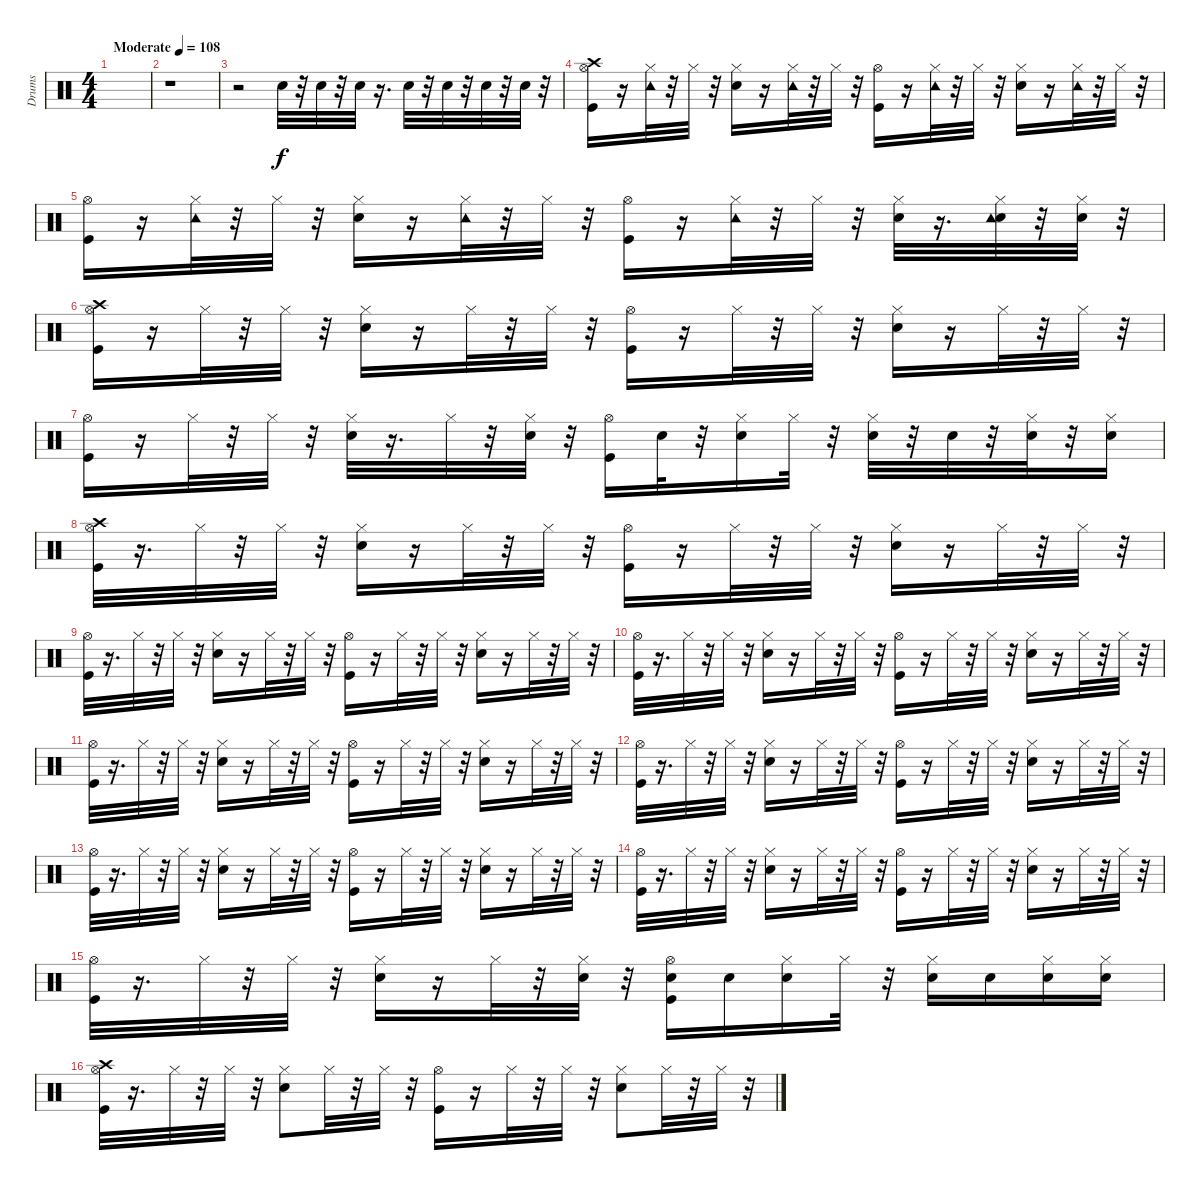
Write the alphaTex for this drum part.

\track ("Drums               " "Drums     ") {instrument percussion}
\staff {score}
\articulation defaults
\ts (4 4)
\tempo (108 "Moderate")
\clef neutral
\ks c
|
r.1 |
r.2 "Snare (hit) 2".32 r.32 "Snare (hit) 2".32 r.32 "Snare (hit) 2".32 r.16{d} "Snare (hit) 2".32 r.32 "Snare (hit) 2".32 r.32 "Snare (hit) 2".32 r.32 "Snare (hit) 2".32 r.32 |
("Kick (hit)" "Hi-Hat (open)" "Crash high (hit)").16 r.16 ("Hi-Hat (closed)" "Tambourine (hit)").32 r.32 "Hi-Hat (closed)".32 r.32 ("Snare (hit) 2" "Hi-Hat (closed)").16 r.16 ("Hi-Hat (closed)" "Tambourine (hit)").32 r.32 "Hi-Hat (closed)".32 r.32 ("Kick (hit)" "Hi-Hat (open)").16 r.16 ("Hi-Hat (closed)" "Tambourine (hit)").32 r.32 "Hi-Hat (closed)".32 r.32 ("Snare (hit) 2" "Hi-Hat (closed)").16 r.16 ("Hi-Hat (closed)" "Tambourine (hit)").32 r.32 "Hi-Hat (closed)".32 r.32 |
("Kick (hit)" "Hi-Hat (open)").16 r.16 ("Hi-Hat (closed)" "Tambourine (hit)").32 r.32 "Hi-Hat (closed)".32 r.32 ("Snare (hit) 2" "Hi-Hat (closed)").16 r.16 ("Hi-Hat (closed)" "Tambourine (hit)").32 r.32 "Hi-Hat (closed)".32 r.32 ("Kick (hit)" "Hi-Hat (open)").16 r.16 ("Hi-Hat (closed)" "Tambourine (hit)").32 r.32 "Hi-Hat (closed)".32 r.32 ("Snare (hit) 2" "Hi-Hat (closed)").32 r.16{d} ("Snare (hit) 2" "Hi-Hat (closed)" "Tambourine (hit)").32 r.32 ("Snare (hit) 2" "Hi-Hat (closed)").32 r.32 |
("Kick (hit)" "Hi-Hat (open)" "Crash high (hit)").16 r.16 "Hi-Hat (closed)".32 r.32 "Hi-Hat (closed)".32 r.32 ("Snare (hit) 2" "Hi-Hat (closed)").16 r.16 "Hi-Hat (closed)".32 r.32 "Hi-Hat (closed)".32 r.32 ("Kick (hit)" "Hi-Hat (open)").16 r.16 "Hi-Hat (closed)".32 r.32 "Hi-Hat (closed)".32 r.32 ("Snare (hit) 2" "Hi-Hat (closed)").16 r.16 "Hi-Hat (closed)".32 r.32 "Hi-Hat (closed)".32 r.32 |
("Kick (hit)" "Hi-Hat (open)").16 r.16 "Hi-Hat (closed)".32 r.32 "Hi-Hat (closed)".32 r.32 ("Snare (hit) 2" "Hi-Hat (closed)").32 r.16{d} "Hi-Hat (closed)".32 r.32 ("Snare (hit) 2" "Hi-Hat (closed)").32 r.32 ("Kick (hit)" "Hi-Hat (open)").16 "Snare (hit) 2".32 r.32 ("Snare (hit) 2" "Hi-Hat (closed)").16 "Hi-Hat (closed)".32 r.32 ("Snare (hit) 2" "Hi-Hat (closed)").32 r.32 "Snare (hit) 2".32 r.32 ("Snare (hit) 2" "Hi-Hat (closed)").32 r.32 ("Snare (hit) 2" "Hi-Hat (closed)").16 |
("Kick (hit)" "Hi-Hat (open)" "Crash high (hit)").32 r.16{d} "Hi-Hat (closed)".32 r.32 "Hi-Hat (closed)".32 r.32 ("Snare (hit) 2" "Hi-Hat (closed)").16 r.16 "Hi-Hat (closed)".32 r.32 "Hi-Hat (closed)".32 r.32 ("Kick (hit)" "Hi-Hat (open)").16 r.16 "Hi-Hat (closed)".32 r.32 "Hi-Hat (closed)".32 r.32 ("Snare (hit) 2" "Hi-Hat (closed)").16 r.16 "Hi-Hat (closed)".32 r.32 "Hi-Hat (closed)".32 r.32 |
("Kick (hit)" "Hi-Hat (open)").32 r.16{d} "Hi-Hat (closed)".32 r.32 "Hi-Hat (closed)".32 r.32 ("Snare (hit) 2" "Hi-Hat (closed)").16 r.16 "Hi-Hat (closed)".32 r.32 "Hi-Hat (closed)".32 r.32 ("Kick (hit)" "Hi-Hat (open)").16 r.16 "Hi-Hat (closed)".32 r.32 "Hi-Hat (closed)".32 r.32 ("Snare (hit) 2" "Hi-Hat (closed)").16 r.16 "Hi-Hat (closed)".32 r.32 "Hi-Hat (closed)".32 r.32 |
("Kick (hit)" "Hi-Hat (open)").32 r.16{d} "Hi-Hat (closed)".32 r.32 "Hi-Hat (closed)".32 r.32 ("Snare (hit) 2" "Hi-Hat (closed)").16 r.16 "Hi-Hat (closed)".32 r.32 "Hi-Hat (closed)".32 r.32 ("Kick (hit)" "Hi-Hat (open)").16 r.16 "Hi-Hat (closed)".32 r.32 "Hi-Hat (closed)".32 r.32 ("Snare (hit) 2" "Hi-Hat (closed)").16 r.16 "Hi-Hat (closed)".32 r.32 "Hi-Hat (closed)".32 r.32 |
("Kick (hit)" "Hi-Hat (open)").32 r.16{d} "Hi-Hat (closed)".32 r.32 "Hi-Hat (closed)".32 r.32 ("Snare (hit) 2" "Hi-Hat (closed)").16 r.16 "Hi-Hat (closed)".32 r.32 "Hi-Hat (closed)".32 r.32 ("Kick (hit)" "Hi-Hat (open)").16 r.16 "Hi-Hat (closed)".32 r.32 "Hi-Hat (closed)".32 r.32 ("Snare (hit) 2" "Hi-Hat (closed)").16 r.16 "Hi-Hat (closed)".32 r.32 "Hi-Hat (closed)".32 r.32 |
("Kick (hit)" "Hi-Hat (open)").32 r.16{d} "Hi-Hat (closed)".32 r.32 "Hi-Hat (closed)".32 r.32 ("Snare (hit) 2" "Hi-Hat (closed)").16 r.16 "Hi-Hat (closed)".32 r.32 "Hi-Hat (closed)".32 r.32 ("Kick (hit)" "Hi-Hat (open)").16 r.16 "Hi-Hat (closed)".32 r.32 "Hi-Hat (closed)".32 r.32 ("Snare (hit) 2" "Hi-Hat (closed)").16 r.16 "Hi-Hat (closed)".32 r.32 "Hi-Hat (closed)".32 r.32 |
("Kick (hit)" "Hi-Hat (open)").32 r.16{d} "Hi-Hat (closed)".32 r.32 "Hi-Hat (closed)".32 r.32 ("Snare (hit) 2" "Hi-Hat (closed)").16 r.16 "Hi-Hat (closed)".32 r.32 "Hi-Hat (closed)".32 r.32 ("Kick (hit)" "Hi-Hat (open)").16 r.16 "Hi-Hat (closed)".32 r.32 "Hi-Hat (closed)".32 r.32 ("Snare (hit) 2" "Hi-Hat (closed)").16 r.16 "Hi-Hat (closed)".32 r.32 "Hi-Hat (closed)".32 r.32 |
("Kick (hit)" "Hi-Hat (open)").32 r.16{d} "Hi-Hat (closed)".32 r.32 "Hi-Hat (closed)".32 r.32 ("Snare (hit) 2" "Hi-Hat (closed)").16 r.16 "Hi-Hat (closed)".32 r.32 "Hi-Hat (closed)".32 r.32 ("Kick (hit)" "Hi-Hat (open)").16 r.16 "Hi-Hat (closed)".32 r.32 "Hi-Hat (closed)".32 r.32 ("Snare (hit) 2" "Hi-Hat (closed)").16 r.16 "Hi-Hat (closed)".32 r.32 "Hi-Hat (closed)".32 r.32 |
("Kick (hit)" "Hi-Hat (open)").32 r.16{d} "Hi-Hat (closed)".32 r.32 "Hi-Hat (closed)".32 r.32 ("Snare (hit) 2" "Hi-Hat (closed)").16 r.16 "Hi-Hat (closed)".32 r.32 ("Snare (hit) 2" "Hi-Hat (closed)").32 r.32 ("Kick (hit)" "Snare (hit) 2" "Hi-Hat (open)").16 "Snare (hit) 2".16 ("Snare (hit) 2" "Hi-Hat (closed)").16 "Hi-Hat (closed)".32 r.32 ("Snare (hit) 2" "Hi-Hat (closed)").16 "Snare (hit) 2".16 ("Snare (hit) 2" "Hi-Hat (closed)").16 ("Snare (hit) 2" "Hi-Hat (closed)").16 |
("Kick (hit)" "Hi-Hat (open)" "Crash high (hit)").32 r.16{d} "Hi-Hat (closed)".32 r.32 "Hi-Hat (closed)".32 r.32 ("Snare (hit) 2" "Hi-Hat (closed)").8 "Hi-Hat (closed)".32 r.32 "Hi-Hat (closed)".32 r.32 ("Kick (hit)" "Hi-Hat (open)").16 r.16 "Hi-Hat (closed)".32 r.32 "Hi-Hat (closed)".32 r.32 ("Snare (hit) 2" "Hi-Hat (closed)").8 "Hi-Hat (closed)".32 r.32 "Hi-Hat (closed)".32 r.32
